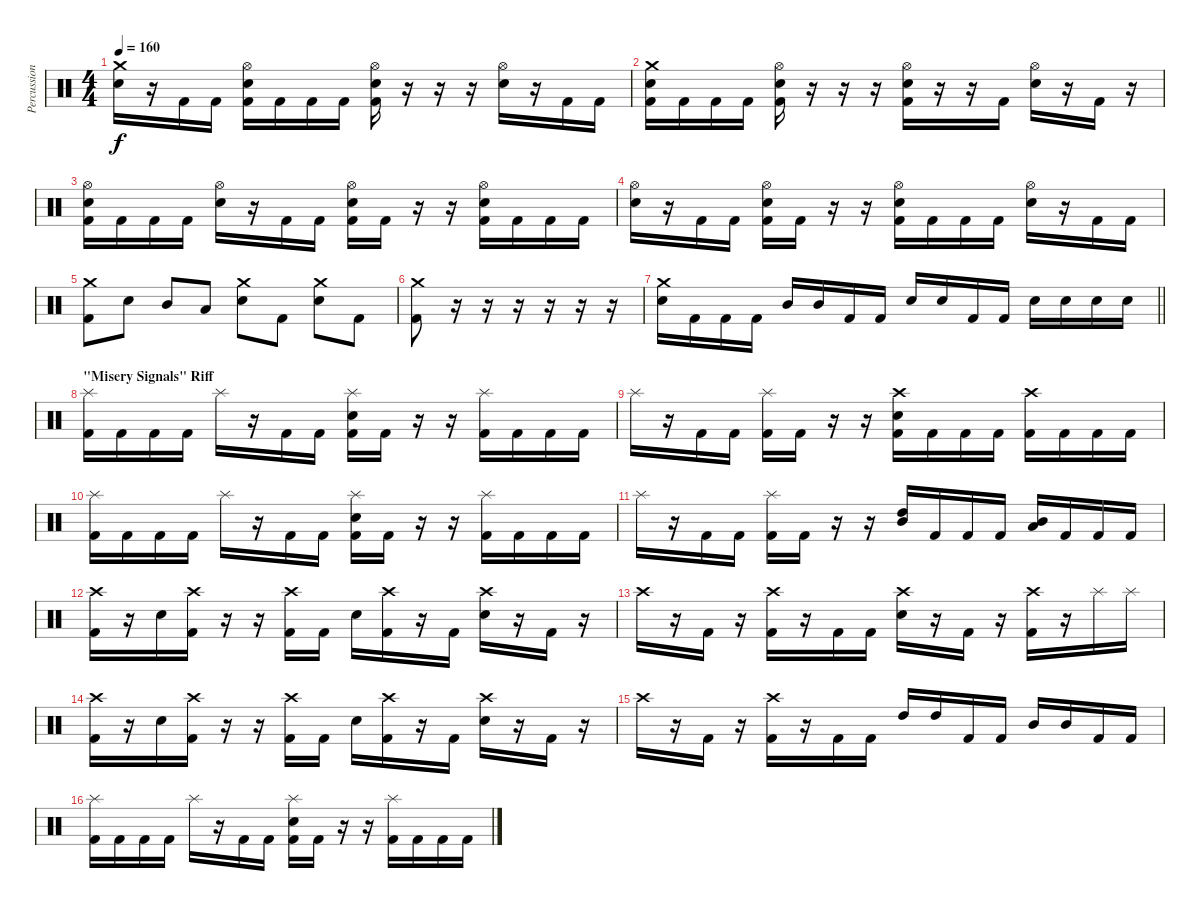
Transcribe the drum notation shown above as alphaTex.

\track ("Percussion" "Percussion") {instrument percussion}
\staff {score}
\articulation defaults
\ts (4 4)
\tempo 160
\clef neutral
\ks c
("Crash medium (hit)" "Snare (hit) 2").16{dy f} r.16 "Kick (hit) 2".16 "Kick (hit) 2".16 ("Hi-Hat (open)" "Snare (hit) 2" "Kick (hit) 2").16 "Kick (hit) 2".16 "Kick (hit) 2".16 "Kick (hit) 2".16 ("Hi-Hat (open)" "Snare (hit) 2" "Kick (hit) 2").16 r.16 r.16 r.16 ("Hi-Hat (open)" "Snare (hit) 2").16 r.16 "Kick (hit) 2".16 "Kick (hit) 2".16 |
("Crash medium (hit)" "Snare (hit) 2" "Kick (hit) 2").16 "Kick (hit) 2".16 "Kick (hit) 2".16 "Kick (hit) 2".16 ("Hi-Hat (open)" "Snare (hit) 2" "Kick (hit) 2").16 r.16 r.16 r.16 ("Hi-Hat (open)" "Snare (hit) 2" "Kick (hit) 2").16 r.16 r.16 "Kick (hit) 2".16 ("Hi-Hat (open)" "Snare (hit) 2").16 r.16 "Kick (hit) 2".16 r.16 |
("Hi-Hat (open)" "Snare (hit) 2" "Kick (hit) 2").16 "Kick (hit) 2".16 "Kick (hit) 2".16 "Kick (hit) 2".16 ("Hi-Hat (open)" "Snare (hit) 2").16 r.16 "Kick (hit) 2".16 "Kick (hit) 2".16 ("Hi-Hat (open)" "Snare (hit) 2" "Kick (hit) 2").16 "Kick (hit) 2".16 r.16 r.16 ("Hi-Hat (open)" "Snare (hit) 2" "Kick (hit) 2").16 "Kick (hit) 2".16 "Kick (hit) 2".16 "Kick (hit) 2".16 |
("Hi-Hat (open)" "Snare (hit) 2").16 r.16 "Kick (hit) 2".16 "Kick (hit) 2".16 ("Hi-Hat (open)" "Snare (hit) 2" "Kick (hit) 2").16 "Kick (hit) 2".16 r.16 r.16 ("Hi-Hat (open)" "Snare (hit) 2" "Kick (hit) 2").16 "Kick (hit) 2".16 "Kick (hit) 2".16 "Kick (hit) 2".16 ("Hi-Hat (open)" "Snare (hit) 2").16 r.16 "Kick (hit) 2".16 "Kick (hit) 2".16 |
("Crash medium (hit)" "Kick (hit) 2").8 "Snare (hit) 2".8 "Mid Tom (hit)".8 "Low Tom (hit)".8 ("Crash medium (hit)" "Snare (hit) 2").8 "Kick (hit) 2".8 ("Crash medium (hit)" "Snare (hit) 2").8 "Kick (hit) 2".8 |
("Crash medium (hit)" "Kick (hit) 2").8 r.16{volume 0} r.16 r.16 r.16 r.16 r.16 |
\barLineRight lightlight
("Crash medium (hit)" "Snare (hit) 2").16{volume 13} "Kick (hit) 2".16 "Kick (hit) 2".16 "Kick (hit) 2".16 "Mid Tom (hit)".16 "Mid Tom (hit)".16 "Kick (hit) 2".16 "Kick (hit) 2".16 "Electric Snare (hit)".16 "Electric Snare (hit)".16 "Kick (hit) 2".16 "Kick (hit) 2".16 "Electric Snare (hit)".16 "Electric Snare (hit)".16 "Electric Snare (hit)".16 "Electric Snare (hit)".16 |
\section ("" "\"Misery Signals\" Riff")
("Splash (hit)" "Kick (hit) 2").16 "Kick (hit) 2".16 "Kick (hit) 2".16 "Kick (hit) 2".16 "Splash (hit)".16 r.16 "Kick (hit) 2".16 "Kick (hit) 2".16 ("Splash (hit)" "Electric Snare (hit)" "Kick (hit) 2").16 "Kick (hit) 2".16 r.16 r.16 ("Splash (hit)" "Kick (hit) 2").16 "Kick (hit) 2".16 "Kick (hit) 2".16 "Kick (hit) 2".16 |
"Splash (hit)".16 r.16 "Kick (hit) 2".16 "Kick (hit) 2".16 ("Splash (hit)" "Kick (hit) 2").16 "Kick (hit) 2".16 r.16 r.16 ("Crash high (hit)" "Electric Snare (hit)" "Kick (hit) 2").16 "Kick (hit) 2".16 "Kick (hit) 2".16 "Kick (hit) 2".16 ("Crash high (hit)" "Kick (hit) 2").16 "Kick (hit) 2".16 "Kick (hit) 2".16 "Kick (hit) 2".16 |
("Splash (hit)" "Kick (hit) 2").16 "Kick (hit) 2".16 "Kick (hit) 2".16 "Kick (hit) 2".16 "Splash (hit)".16 r.16 "Kick (hit) 2".16 "Kick (hit) 2".16 ("Splash (hit)" "Electric Snare (hit)" "Kick (hit) 2").16 "Kick (hit) 2".16 r.16 r.16 ("Splash (hit)" "Kick (hit) 2").16 "Kick (hit) 2".16 "Kick (hit) 2".16 "Kick (hit) 2".16 |
"Splash (hit)".16 r.16 "Kick (hit) 2".16 "Kick (hit) 2".16 ("Splash (hit)" "Kick (hit) 2").16 "Kick (hit) 2".16 r.16 r.16 ("High Tom (hit)" "Mid Tom (hit)").16 "Kick (hit) 2".16 "Kick (hit) 2".16 "Kick (hit) 2".16 ("Mid Tom (hit)" "Low Tom (hit)").16 "Kick (hit) 2".16 "Kick (hit) 2".16 "Kick (hit) 2".16 |
("Crash high (hit)" "Kick (hit) 2").16 r.16 "Electric Snare (hit)".16 ("Crash high (hit)" "Kick (hit) 2").16 r.16 r.16 ("Crash high (hit)" "Kick (hit) 2").16 "Kick (hit) 2".16 "Electric Snare (hit)".16 ("Crash high (hit)" "Kick (hit) 2").16 r.16 "Kick (hit) 2".16 ("Crash high (hit)" "Electric Snare (hit)").16 r.16 "Kick (hit) 2".16 r.16 |
"Crash high (hit)".16 r.16 "Kick (hit) 2".16 r.16 ("Crash high (hit)" "Kick (hit) 2").16 r.16 "Kick (hit) 2".16 "Kick (hit) 2".16 ("Crash high (hit)" "Electric Snare (hit)").16 r.16 "Kick (hit) 2".16 r.16 ("Crash high (hit)" "Kick (hit) 2").16 r.16 "Splash (hit)".16 "Splash (hit)".16 |
("Crash high (hit)" "Kick (hit) 2").16 r.16 "Electric Snare (hit)".16 ("Crash high (hit)" "Kick (hit) 2").16 r.16 r.16 ("Crash high (hit)" "Kick (hit) 2").16 "Kick (hit) 2".16 "Electric Snare (hit)".16 ("Crash high (hit)" "Kick (hit) 2").16 r.16 "Kick (hit) 2".16 ("Crash high (hit)" "Electric Snare (hit)").16 r.16 "Kick (hit) 2".16 r.16 |
"Crash high (hit)".16 r.16 "Kick (hit) 2".16 r.16 ("Crash high (hit)" "Kick (hit) 2").16 r.16 "Kick (hit) 2".16 "Kick (hit) 2".16 "High Tom (hit)".16 "High Tom (hit)".16 "Kick (hit) 2".16 "Kick (hit) 2".16 "Mid Tom (hit)".16 "Mid Tom (hit)".16 "Kick (hit) 2".16 "Kick (hit) 2".16 |
("Splash (hit)" "Kick (hit) 2").16 "Kick (hit) 2".16 "Kick (hit) 2".16 "Kick (hit) 2".16 "Splash (hit)".16 r.16 "Kick (hit) 2".16 "Kick (hit) 2".16 ("Splash (hit)" "Electric Snare (hit)" "Kick (hit) 2").16 "Kick (hit) 2".16 r.16 r.16 ("Splash (hit)" "Kick (hit) 2").16 "Kick (hit) 2".16 "Kick (hit) 2".16 "Kick (hit) 2".16
